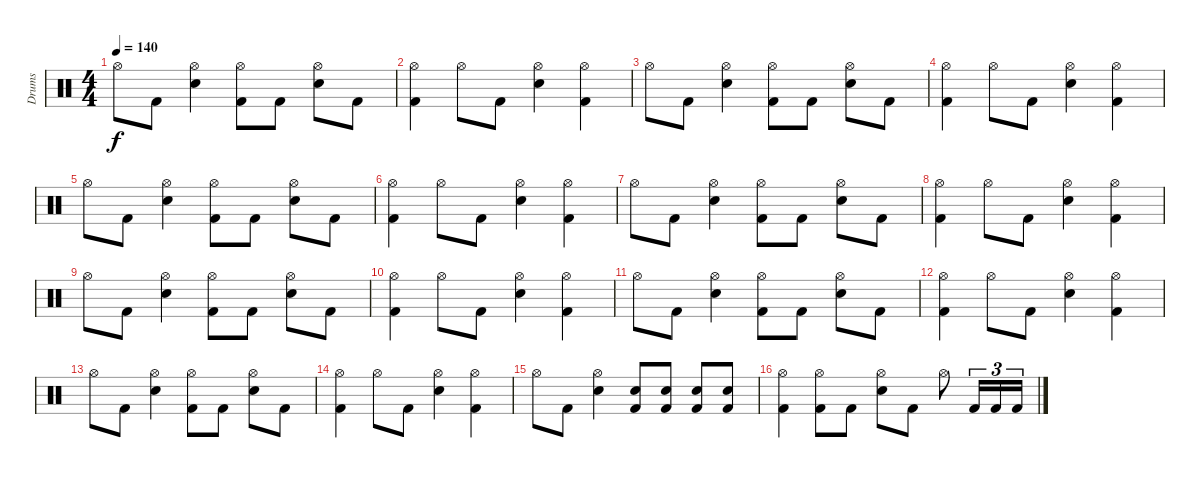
\track ("Drums" "Drums") {instrument percussion}
\staff {score}
\articulation defaults
\ts (4 4)
\tempo 140
\clef neutral
\ks c "Hi-Hat (open)".8{dy f} "Kick (hit) 2".8
("Electric Snare (hit)" "Hi-Hat (open)").4 ("Kick (hit) 2" "Hi-Hat (open)").8 "Kick (hit) 2".8 ("Electric Snare (hit)" "Hi-Hat (open)").8 "Kick (hit) 2".8 |
("Kick (hit) 2" "Hi-Hat (open)").4 "Hi-Hat (open)".8 "Kick (hit) 2".8 ("Electric Snare (hit)" "Hi-Hat (open)").4 ("Kick (hit) 2" "Hi-Hat (open)").4 |
"Hi-Hat (open)".8 "Kick (hit) 2".8 ("Electric Snare (hit)" "Hi-Hat (open)").4 ("Kick (hit) 2" "Hi-Hat (open)").8 "Kick (hit) 2".8 ("Electric Snare (hit)" "Hi-Hat (open)").8 "Kick (hit) 2".8 |
("Kick (hit) 2" "Hi-Hat (open)").4 "Hi-Hat (open)".8 "Kick (hit) 2".8 ("Electric Snare (hit)" "Hi-Hat (open)").4 ("Kick (hit) 2" "Hi-Hat (open)").4 |
"Hi-Hat (open)".8 "Kick (hit) 2".8 ("Electric Snare (hit)" "Hi-Hat (open)").4 ("Kick (hit) 2" "Hi-Hat (open)").8 "Kick (hit) 2".8 ("Electric Snare (hit)" "Hi-Hat (open)").8 "Kick (hit) 2".8 |
("Kick (hit) 2" "Hi-Hat (open)").4 "Hi-Hat (open)".8 "Kick (hit) 2".8 ("Electric Snare (hit)" "Hi-Hat (open)").4 ("Kick (hit) 2" "Hi-Hat (open)").4 |
"Hi-Hat (open)".8 "Kick (hit) 2".8 ("Electric Snare (hit)" "Hi-Hat (open)").4 ("Kick (hit) 2" "Hi-Hat (open)").8 "Kick (hit) 2".8 ("Electric Snare (hit)" "Hi-Hat (open)").8 "Kick (hit) 2".8 |
("Kick (hit) 2" "Hi-Hat (open)").4 "Hi-Hat (open)".8 "Kick (hit) 2".8 ("Electric Snare (hit)" "Hi-Hat (open)").4 ("Kick (hit) 2" "Hi-Hat (open)").4 |
"Hi-Hat (open)".8 "Kick (hit) 2".8 ("Electric Snare (hit)" "Hi-Hat (open)").4 ("Kick (hit) 2" "Hi-Hat (open)").8 "Kick (hit) 2".8 ("Electric Snare (hit)" "Hi-Hat (open)").8 "Kick (hit) 2".8 |
("Kick (hit) 2" "Hi-Hat (open)").4 "Hi-Hat (open)".8 "Kick (hit) 2".8 ("Electric Snare (hit)" "Hi-Hat (open)").4 ("Kick (hit) 2" "Hi-Hat (open)").4 |
"Hi-Hat (open)".8 "Kick (hit) 2".8 ("Electric Snare (hit)" "Hi-Hat (open)").4 ("Kick (hit) 2" "Hi-Hat (open)").8 "Kick (hit) 2".8 ("Electric Snare (hit)" "Hi-Hat (open)").8 "Kick (hit) 2".8 |
("Kick (hit) 2" "Hi-Hat (open)").4 "Hi-Hat (open)".8 "Kick (hit) 2".8 ("Electric Snare (hit)" "Hi-Hat (open)").4 ("Kick (hit) 2" "Hi-Hat (open)").4 |
"Hi-Hat (open)".8 "Kick (hit) 2".8 ("Electric Snare (hit)" "Hi-Hat (open)").4 ("Kick (hit) 2" "Hi-Hat (open)").8 "Kick (hit) 2".8 ("Electric Snare (hit)" "Hi-Hat (open)").8 "Kick (hit) 2".8 |
("Kick (hit) 2" "Hi-Hat (open)").4 "Hi-Hat (open)".8 "Kick (hit) 2".8 ("Electric Snare (hit)" "Hi-Hat (open)").4 ("Kick (hit) 2" "Hi-Hat (open)").4 |
"Hi-Hat (open)".8 "Kick (hit) 2".8 ("Electric Snare (hit)" "Hi-Hat (open)").4 ("Kick (hit) 2" "Electric Snare (hit)").8 ("Kick (hit) 2" "Electric Snare (hit)").8 ("Electric Snare (hit)" "Kick (hit) 2").8 ("Kick (hit) 2" "Electric Snare (hit)").8 |
("Hi-Hat (open)" "Kick (hit) 2").4 ("Hi-Hat (open)" "Kick (hit) 2").8 "Kick (hit) 2".8 ("Hi-Hat (open)" "Electric Snare (hit)").8 "Kick (hit) 2".8 "Hi-Hat (open)".8 "Kick (hit) 2".16{tu (3 2)} "Kick (hit) 2".16{tu (3 2)} "Kick (hit) 2".16{tu (3 2)}
